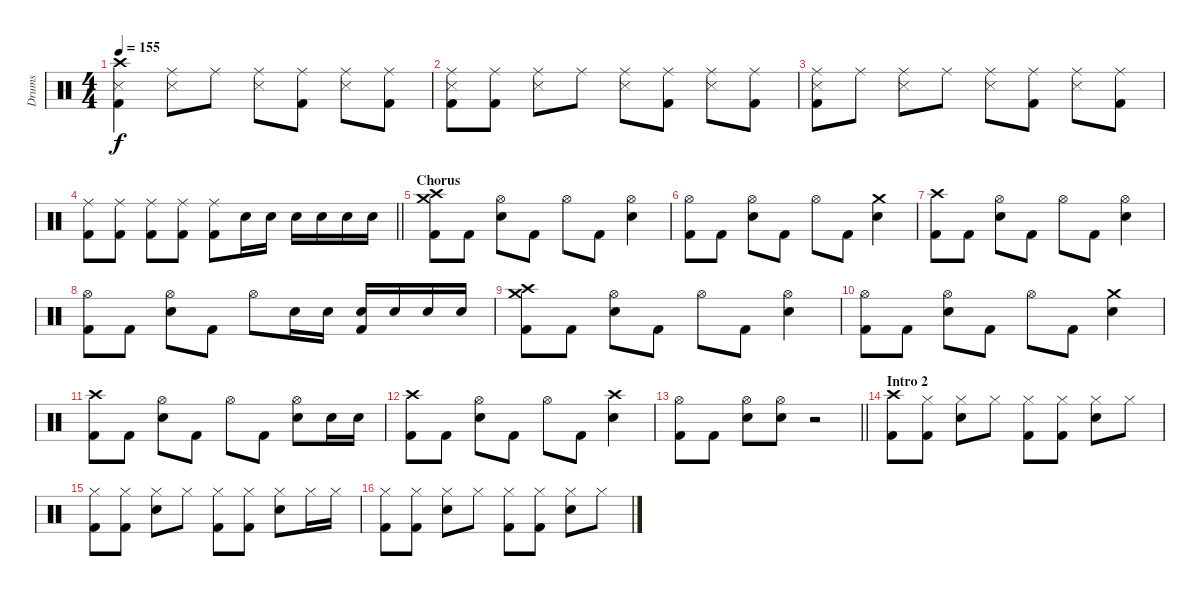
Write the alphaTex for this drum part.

\track ("Drums" "Drums") {instrument percussion}
\staff {score}
\articulation defaults
\ts (4 4)
\tempo 155
\clef neutral
\ks c
("Kick (hit) 2" "Snare (side stick) 3" "Crash high (hit)").4{dy f} ("Snare (side stick) 3" "Ride (middle)").8 "Ride (middle)".8 ("Snare (side stick) 3" "Ride (middle)").8 ("Kick (hit) 2" "Ride (middle)").8 ("Snare (side stick) 3" "Ride (middle)").8 ("Kick (hit) 2" "Ride (middle)").8 |
("Kick (hit) 2" "Snare (side stick) 3" "Ride (middle)").8 ("Kick (hit) 2" "Ride (middle)").8 ("Snare (side stick) 3" "Ride (middle)").8 "Ride (middle)".8 ("Snare (side stick) 3" "Ride (middle)").8 ("Kick (hit) 2" "Ride (middle)").8 ("Snare (side stick) 3" "Ride (middle)").8 ("Kick (hit) 2" "Ride (middle)").8 |
("Kick (hit) 2" "Snare (side stick) 3" "Ride (middle)").8 "Ride (middle)".8 ("Snare (side stick) 3" "Ride (middle)").8 "Ride (middle)".8 ("Snare (side stick) 3" "Ride (middle)").8 ("Kick (hit) 2" "Ride (middle)").8 ("Snare (side stick) 3" "Ride (middle)").8 ("Kick (hit) 2" "Ride (middle)").8 |
\barLineRight lightlight
("Kick (hit) 2" "Ride (middle)").8 ("Kick (hit) 2" "Ride (middle)").8 ("Kick (hit) 2" "Ride (middle)").8 ("Kick (hit) 2" "Ride (middle)").8 ("Kick (hit) 2" "Ride (middle)").8 "Electric Snare (hit)".16 "Electric Snare (hit)".16 "Electric Snare (hit)".16 "Electric Snare (hit)".16 "Electric Snare (hit)".16 "Electric Snare (hit)".16 |
\section ("" "Chorus")
("Kick (hit) 2" "Crash medium (hit)" "Crash high (hit)").8 "Kick (hit) 2".8 ("Electric Snare (hit)" "Hi-Hat (open)").8 "Kick (hit) 2".8 "Hi-Hat (open)".8 "Kick (hit) 2".8 ("Electric Snare (hit)" "Hi-Hat (open)").4 |
("Kick (hit) 2" "Hi-Hat (open)").8 "Kick (hit) 2".8 ("Electric Snare (hit)" "Hi-Hat (open)").8 "Kick (hit) 2".8 "Hi-Hat (open)".8 "Kick (hit) 2".8 ("Electric Snare (hit)" "Crash medium (hit)").4 |
("Kick (hit) 2" "Crash high (hit)").8 "Kick (hit) 2".8 ("Electric Snare (hit)" "Hi-Hat (open)").8 "Kick (hit) 2".8 "Hi-Hat (open)".8 "Kick (hit) 2".8 ("Electric Snare (hit)" "Hi-Hat (open)").4 |
("Kick (hit) 2" "Hi-Hat (open)").8 "Kick (hit) 2".8 ("Electric Snare (hit)" "Hi-Hat (open)").8 "Kick (hit) 2".8 "Hi-Hat (open)".8 "Electric Snare (hit)".16 "Electric Snare (hit)".16 ("Kick (hit) 2" "Electric Snare (hit)").16 "Electric Snare (hit)".16 "Electric Snare (hit)".16 "Electric Snare (hit)".16 |
("Kick (hit) 2" "Crash medium (hit)" "Crash high (hit)").8 "Kick (hit) 2".8 ("Electric Snare (hit)" "Hi-Hat (open)").8 "Kick (hit) 2".8 "Hi-Hat (open)".8 "Kick (hit) 2".8 ("Electric Snare (hit)" "Hi-Hat (open)").4 |
("Kick (hit) 2" "Hi-Hat (open)").8 "Kick (hit) 2".8 ("Electric Snare (hit)" "Hi-Hat (open)").8 "Kick (hit) 2".8 "Hi-Hat (open)".8 "Kick (hit) 2".8 ("Electric Snare (hit)" "Crash medium (hit)").4 |
("Kick (hit) 2" "Crash high (hit)").8 "Kick (hit) 2".8 ("Electric Snare (hit)" "Hi-Hat (open)").8 "Kick (hit) 2".8 "Hi-Hat (open)".8 "Kick (hit) 2".8 ("Electric Snare (hit)" "Hi-Hat (open)").8 "Electric Snare (hit)".16 "Electric Snare (hit)".16 |
("Kick (hit) 2" "Crash high (hit)").8 "Kick (hit) 2".8 ("Electric Snare (hit)" "Hi-Hat (open)").8 "Kick (hit) 2".8 "Hi-Hat (open)".8 "Kick (hit) 2".8 ("Electric Snare (hit)" "Crash high (hit)").4 |
\barLineRight lightlight
("Kick (hit) 2" "Hi-Hat (open)").8 "Kick (hit) 2".8 ("Electric Snare (hit)" "Hi-Hat (open)").8 ("Electric Snare (hit)" "Hi-Hat (open)").8 r.2 |
\section ("" "Intro 2")
("Kick (hit) 2" "Crash high (hit)").8 ("Kick (hit) 2" "Hi-Hat (closed)").8 ("Electric Snare (hit)" "Hi-Hat (closed)").8 "Hi-Hat (closed)".8 ("Kick (hit) 2" "Hi-Hat (closed)").8 ("Kick (hit) 2" "Hi-Hat (closed)").8 ("Electric Snare (hit)" "Hi-Hat (closed)").8 "Hi-Hat (closed)".8 |
("Kick (hit) 2" "Hi-Hat (closed)").8 ("Kick (hit) 2" "Hi-Hat (closed)").8 ("Electric Snare (hit)" "Hi-Hat (closed)").8 "Hi-Hat (closed)".8 ("Kick (hit) 2" "Hi-Hat (closed)").8 ("Kick (hit) 2" "Hi-Hat (closed)").8 ("Electric Snare (hit)" "Hi-Hat (closed)").8 "Hi-Hat (closed)".16 "Hi-Hat (closed)".16 |
("Kick (hit) 2" "Hi-Hat (closed)").8 ("Kick (hit) 2" "Hi-Hat (closed)").8 ("Electric Snare (hit)" "Hi-Hat (closed)").8 "Hi-Hat (closed)".8 ("Kick (hit) 2" "Hi-Hat (closed)").8 ("Kick (hit) 2" "Hi-Hat (closed)").8 ("Electric Snare (hit)" "Hi-Hat (closed)").8 "Hi-Hat (closed)".8
